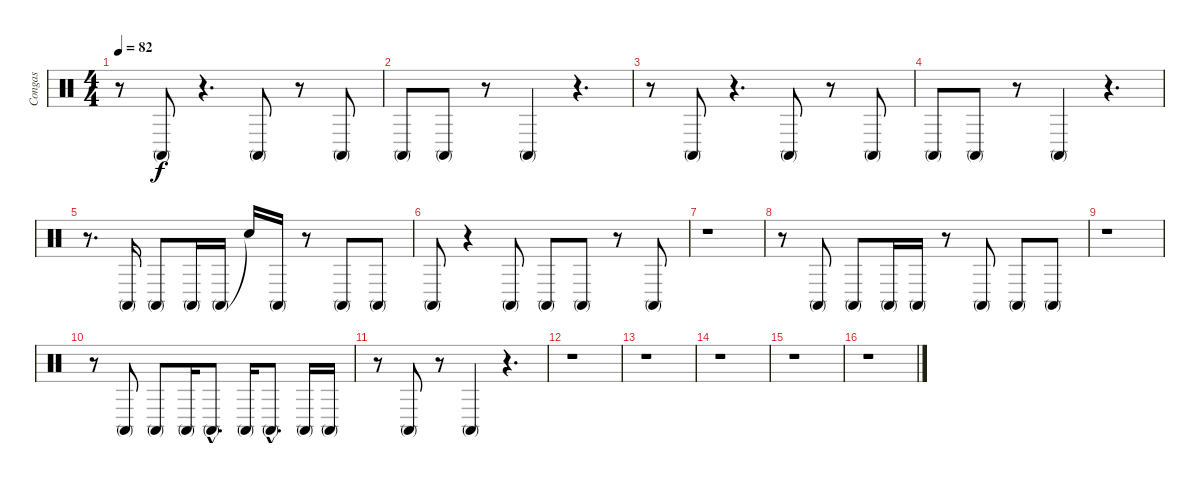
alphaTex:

\track ("Congas" "Congas") {instrument percussion}
\staff {score}
\articulation defaults
\ts (4 4)
\tempo 82
\clef neutral
\ks c
r.8{dy f} "Conga high (mute)".8 r.4{d} "Conga high (mute)".8 r.8 "Conga high (mute)".8 |
"Conga high (mute)".8 "Conga high (mute)".8 r.8 "Conga high (mute)".4 r.4{d} |
r.8 "Conga high (mute)".8 r.4{d} "Conga high (mute)".8 r.8 "Conga high (mute)".8 |
"Conga high (mute)".8 "Conga high (mute)".8 r.8 "Conga high (mute)".4 r.4{d} |
r.8{d} "Conga high (mute)".16 "Conga high (mute)".8 "Conga high (mute)".16 "Conga high (mute)".16 "Snare (hit)"{t}.16 "Conga high (mute)".16 r.8 "Conga high (mute)".8 "Conga high (mute)".8 |
"Conga high (mute)".8 r.4 "Conga high (mute)".8 "Conga high (mute)".8 "Conga high (mute)".8 r.8 "Conga high (mute)".8 |
r.1 |
r.8 "Conga high (mute)".8 "Conga high (mute)".8 "Conga high (mute)".16 "Conga high (mute)".16 r.8 "Conga high (mute)".8 "Conga high (mute)".8 "Conga high (mute)".8 |
r.1 |
r.8 "Conga high (mute)".8 "Conga high (mute)".8 "Conga high (mute)".16 "Conga high (mute)"{hac}.8{d} "Conga high (mute)".16 "Conga high (mute)"{hac}.8{d} "Conga high (mute)".16 "Conga high (mute)".16 |
r.8 "Conga high (mute)".8 r.8 "Conga high (mute)".4 r.4{d} |
r.1 |
r.1 |
r.1 |
r.1 |
r.1
